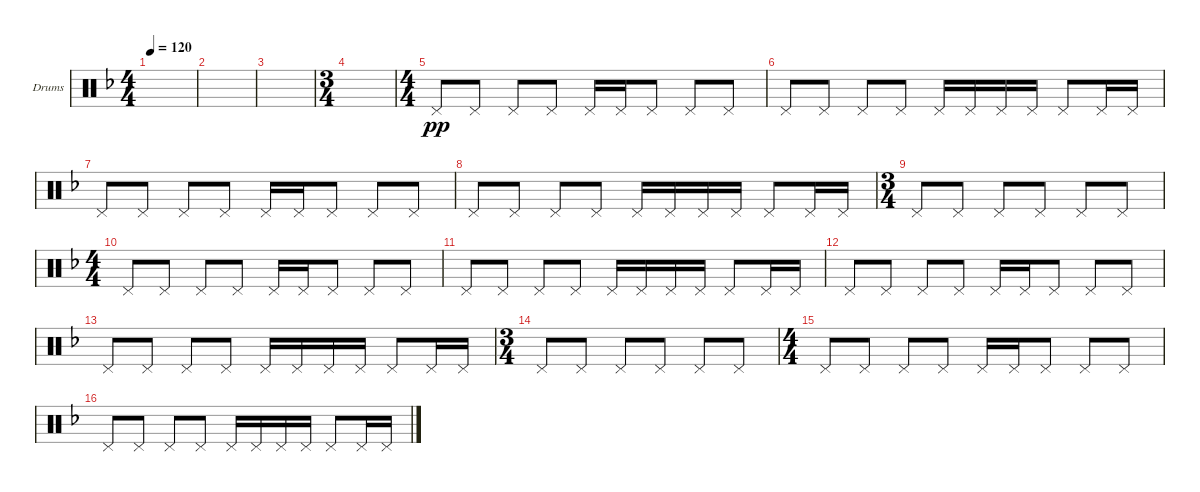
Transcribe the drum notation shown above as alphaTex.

\defaultSystemsLayout 4
\bracketExtendMode groupsimilarinstruments
\firstSystemTrackNameOrientation horizontal
\otherSystemsTrackNameOrientation horizontal
\track ("Drumkit" "Drums") {instrument percussion}
\staff {score}
\articulation defaults
\ts (4 4)
\tempo 120
\clef neutral
\ks f
|
|
|
\ts (3 4)
|
\ts (4 4)
"Pedal Hi-Hat (hit)".8{dy pp} "Pedal Hi-Hat (hit)".8 "Pedal Hi-Hat (hit)".8 "Pedal Hi-Hat (hit)".8 "Pedal Hi-Hat (hit)".16 "Pedal Hi-Hat (hit)".16 "Pedal Hi-Hat (hit)".8 "Pedal Hi-Hat (hit)".8 "Pedal Hi-Hat (hit)".8 |
"Pedal Hi-Hat (hit)".8 "Pedal Hi-Hat (hit)".8 "Pedal Hi-Hat (hit)".8 "Pedal Hi-Hat (hit)".8 "Pedal Hi-Hat (hit)".16 "Pedal Hi-Hat (hit)".16 "Pedal Hi-Hat (hit)".16 "Pedal Hi-Hat (hit)".16 "Pedal Hi-Hat (hit)".8 "Pedal Hi-Hat (hit)".16 "Pedal Hi-Hat (hit)".16 |
"Pedal Hi-Hat (hit)".8 "Pedal Hi-Hat (hit)".8 "Pedal Hi-Hat (hit)".8 "Pedal Hi-Hat (hit)".8 "Pedal Hi-Hat (hit)".16 "Pedal Hi-Hat (hit)".16 "Pedal Hi-Hat (hit)".8 "Pedal Hi-Hat (hit)".8 "Pedal Hi-Hat (hit)".8 |
"Pedal Hi-Hat (hit)".8 "Pedal Hi-Hat (hit)".8 "Pedal Hi-Hat (hit)".8 "Pedal Hi-Hat (hit)".8 "Pedal Hi-Hat (hit)".16 "Pedal Hi-Hat (hit)".16 "Pedal Hi-Hat (hit)".16 "Pedal Hi-Hat (hit)".16 "Pedal Hi-Hat (hit)".8 "Pedal Hi-Hat (hit)".16 "Pedal Hi-Hat (hit)".16 |
\ts (3 4)
"Pedal Hi-Hat (hit)".8 "Pedal Hi-Hat (hit)".8 "Pedal Hi-Hat (hit)".8 "Pedal Hi-Hat (hit)".8 "Pedal Hi-Hat (hit)".8 "Pedal Hi-Hat (hit)".8 |
\ts (4 4)
"Pedal Hi-Hat (hit)".8 "Pedal Hi-Hat (hit)".8 "Pedal Hi-Hat (hit)".8 "Pedal Hi-Hat (hit)".8 "Pedal Hi-Hat (hit)".16 "Pedal Hi-Hat (hit)".16 "Pedal Hi-Hat (hit)".8 "Pedal Hi-Hat (hit)".8 "Pedal Hi-Hat (hit)".8 |
"Pedal Hi-Hat (hit)".8 "Pedal Hi-Hat (hit)".8 "Pedal Hi-Hat (hit)".8 "Pedal Hi-Hat (hit)".8 "Pedal Hi-Hat (hit)".16 "Pedal Hi-Hat (hit)".16 "Pedal Hi-Hat (hit)".16 "Pedal Hi-Hat (hit)".16 "Pedal Hi-Hat (hit)".8 "Pedal Hi-Hat (hit)".16 "Pedal Hi-Hat (hit)".16 |
"Pedal Hi-Hat (hit)".8 "Pedal Hi-Hat (hit)".8 "Pedal Hi-Hat (hit)".8 "Pedal Hi-Hat (hit)".8 "Pedal Hi-Hat (hit)".16 "Pedal Hi-Hat (hit)".16 "Pedal Hi-Hat (hit)".8 "Pedal Hi-Hat (hit)".8 "Pedal Hi-Hat (hit)".8 |
"Pedal Hi-Hat (hit)".8 "Pedal Hi-Hat (hit)".8 "Pedal Hi-Hat (hit)".8 "Pedal Hi-Hat (hit)".8 "Pedal Hi-Hat (hit)".16 "Pedal Hi-Hat (hit)".16 "Pedal Hi-Hat (hit)".16 "Pedal Hi-Hat (hit)".16 "Pedal Hi-Hat (hit)".8 "Pedal Hi-Hat (hit)".16 "Pedal Hi-Hat (hit)".16 |
\ts (3 4)
"Pedal Hi-Hat (hit)".8 "Pedal Hi-Hat (hit)".8 "Pedal Hi-Hat (hit)".8 "Pedal Hi-Hat (hit)".8 "Pedal Hi-Hat (hit)".8 "Pedal Hi-Hat (hit)".8 |
\ts (4 4)
"Pedal Hi-Hat (hit)".8 "Pedal Hi-Hat (hit)".8 "Pedal Hi-Hat (hit)".8 "Pedal Hi-Hat (hit)".8 "Pedal Hi-Hat (hit)".16 "Pedal Hi-Hat (hit)".16 "Pedal Hi-Hat (hit)".8 "Pedal Hi-Hat (hit)".8 "Pedal Hi-Hat (hit)".8 |
"Pedal Hi-Hat (hit)".8 "Pedal Hi-Hat (hit)".8 "Pedal Hi-Hat (hit)".8 "Pedal Hi-Hat (hit)".8 "Pedal Hi-Hat (hit)".16 "Pedal Hi-Hat (hit)".16 "Pedal Hi-Hat (hit)".16 "Pedal Hi-Hat (hit)".16 "Pedal Hi-Hat (hit)".8 "Pedal Hi-Hat (hit)".16 "Pedal Hi-Hat (hit)".16
